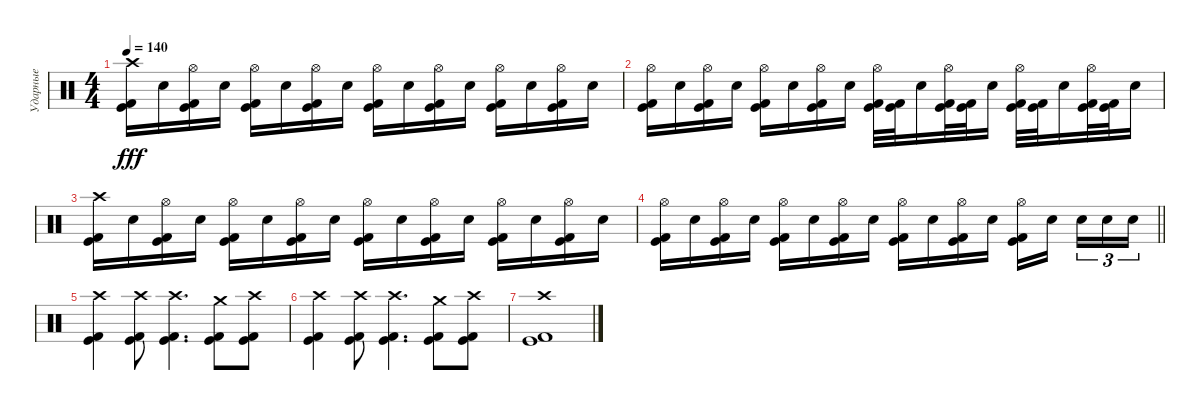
\track ("Ударные" "Ударные") {instrument percussion}
\staff {score}
\articulation defaults
\ts (4 4)
\tempo 140
\clef neutral
\ks c
("Kick (hit)" "Kick (hit) 2" "Crash high (hit)").16{dy fff} "Electric Snare (hit)".16 ("Kick (hit)" "Kick (hit) 2" "Hi-Hat (open)").16 "Electric Snare (hit)".16 ("Kick (hit)" "Kick (hit) 2" "Hi-Hat (open)").16 "Electric Snare (hit)".16 ("Kick (hit)" "Kick (hit) 2" "Hi-Hat (open)").16 "Electric Snare (hit)".16 ("Kick (hit)" "Kick (hit) 2" "Hi-Hat (open)").16 "Electric Snare (hit)".16 ("Kick (hit)" "Kick (hit) 2" "Hi-Hat (open)").16 "Electric Snare (hit)".16 ("Kick (hit)" "Kick (hit) 2" "Hi-Hat (open)").16 "Electric Snare (hit)".16 ("Kick (hit)" "Kick (hit) 2" "Hi-Hat (open)").16 "Electric Snare (hit)".16 |
("Kick (hit)" "Kick (hit) 2" "Hi-Hat (open)").16 "Electric Snare (hit)".16 ("Kick (hit)" "Kick (hit) 2" "Hi-Hat (open)").16 "Electric Snare (hit)".16 ("Kick (hit)" "Kick (hit) 2" "Hi-Hat (open)").16 "Electric Snare (hit)".16 ("Kick (hit)" "Kick (hit) 2" "Hi-Hat (open)").16 "Electric Snare (hit)".16 ("Kick (hit)" "Kick (hit) 2" "Hi-Hat (open)").32 ("Kick (hit)" "Kick (hit) 2").32 "Electric Snare (hit)".16 ("Kick (hit)" "Kick (hit) 2" "Hi-Hat (open)").32 ("Kick (hit)" "Kick (hit) 2").32 "Electric Snare (hit)".16 ("Kick (hit)" "Kick (hit) 2" "Hi-Hat (open)").32 ("Kick (hit)" "Kick (hit) 2").32 "Electric Snare (hit)".16 ("Kick (hit)" "Kick (hit) 2" "Hi-Hat (open)").32 ("Kick (hit)" "Kick (hit) 2").32 "Electric Snare (hit)".16 |
("Kick (hit)" "Kick (hit) 2" "Crash high (hit)").16 "Electric Snare (hit)".16 ("Kick (hit)" "Kick (hit) 2" "Hi-Hat (open)").16 "Electric Snare (hit)".16 ("Kick (hit)" "Kick (hit) 2" "Hi-Hat (open)").16 "Electric Snare (hit)".16 ("Kick (hit)" "Kick (hit) 2" "Hi-Hat (open)").16 "Electric Snare (hit)".16 ("Kick (hit)" "Kick (hit) 2" "Hi-Hat (open)").16 "Electric Snare (hit)".16 ("Kick (hit)" "Kick (hit) 2" "Hi-Hat (open)").16 "Electric Snare (hit)".16 ("Kick (hit)" "Kick (hit) 2" "Hi-Hat (open)").16 "Electric Snare (hit)".16 ("Kick (hit)" "Kick (hit) 2" "Hi-Hat (open)").16 "Electric Snare (hit)".16 |
\barLineRight lightlight
("Kick (hit)" "Kick (hit) 2" "Hi-Hat (open)").16 "Electric Snare (hit)".16 ("Kick (hit)" "Kick (hit) 2" "Hi-Hat (open)").16 "Electric Snare (hit)".16 ("Kick (hit)" "Kick (hit) 2" "Hi-Hat (open)").16 "Electric Snare (hit)".16 ("Kick (hit)" "Kick (hit) 2" "Hi-Hat (open)").16 "Electric Snare (hit)".16 ("Kick (hit)" "Kick (hit) 2" "Hi-Hat (open)").16 "Electric Snare (hit)".16 ("Kick (hit)" "Kick (hit) 2" "Hi-Hat (open)").16 "Electric Snare (hit)".16 ("Kick (hit)" "Kick (hit) 2" "Hi-Hat (open)").16 "Electric Snare (hit)".16{beam splitsecondary} "Electric Snare (hit)".16{tu (3 2)} "Electric Snare (hit)".16{tu (3 2)} "Electric Snare (hit)".16{tu (3 2)} |
("Crash high (hit)" "Kick (hit)" "Kick (hit) 2").4 ("Crash high (hit)" "Kick (hit) 2" "Kick (hit)").8 ("Crash high (hit)" "Kick (hit) 2" "Kick (hit)").4{d} ("Crash medium (hit)" "Kick (hit) 2" "Kick (hit)").8 ("Crash high (hit)" "Kick (hit)" "Kick (hit) 2").8 |
("Crash high (hit)" "Kick (hit)" "Kick (hit) 2").4 ("Crash high (hit)" "Kick (hit) 2" "Kick (hit)").8 ("Crash high (hit)" "Kick (hit) 2" "Kick (hit)").4{d} ("Crash medium (hit)" "Kick (hit) 2" "Kick (hit)").8 ("Crash high (hit)" "Kick (hit)" "Kick (hit) 2").8 |
("Kick (hit)" "Kick (hit) 2" "Crash high (hit)").1
